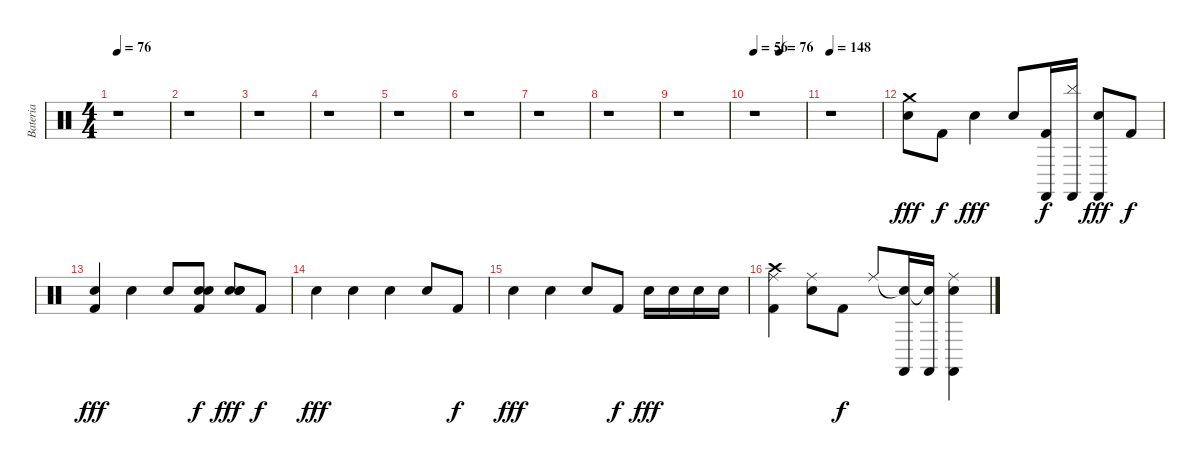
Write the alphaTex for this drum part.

\track ("Bateria" "Bateria") {instrument percussion}
\staff {score}
\articulation defaults
\ts (4 4)
\tempo 76
\clef neutral
\ks c
r.1{dy fff} |
r.1 |
r.1 |
r.1 |
r.1 |
r.1 |
r.1 |
r.1 |
r.1 |
\tempo 56
\tempo (76 0.5)
r.1 |
\tempo 148
r.1 |
("Crash medium (hit)" "Electric Snare (hit)").8 "Kick (hit) 2".8{dy f} "Electric Snare (hit)".4{dy fff} "Electric Snare (hit)".8 ("Kick (hit) 2" "Castanets (hit)").16{dy f} ("Cymbal (hit)" "Castanets (hit)").16 ("Electric Snare (hit)" "Castanets (hit)").8{dy fff} "Kick (hit) 2".8{dy f} |
("Kick (hit) 2" "Electric Snare (hit)").4{dy fff} "Electric Snare (hit)".4 "Electric Snare (hit)".8 ("Kick (hit) 2" "Snare (hit)" "Hand Clap (hit)").8{dy f} ("Electric Snare (hit)" "Snare (hit)" "Hand Clap (hit)").8{dy fff} "Kick (hit) 2".8{dy f} |
"Electric Snare (hit)".4{dy fff} "Electric Snare (hit)".4 "Electric Snare (hit)".4 "Electric Snare (hit)".8 "Kick (hit) 2".8{dy f} |
"Electric Snare (hit)".4{dy fff} "Electric Snare (hit)".4 "Electric Snare (hit)".8 "Kick (hit) 2".8{dy f} "Electric Snare (hit)".16{dy fff} "Electric Snare (hit)".16 "Electric Snare (hit)".16 "Electric Snare (hit)".16 |
("Crash high (hit)" "Kick (hit) 2" "Ride (middle)").4 ("Electric Snare (hit)" "Ride (middle)").8 "Kick (hit) 2".8{dy f} "Ride (middle)".8 ("Electric Snare (hit)"{t} "Castanets (hit)").16 ("Electric Snare (hit)"{t} "Castanets (hit)").16 ("Electric Snare (hit)" "Ride (middle)" "Castanets (hit)").4
